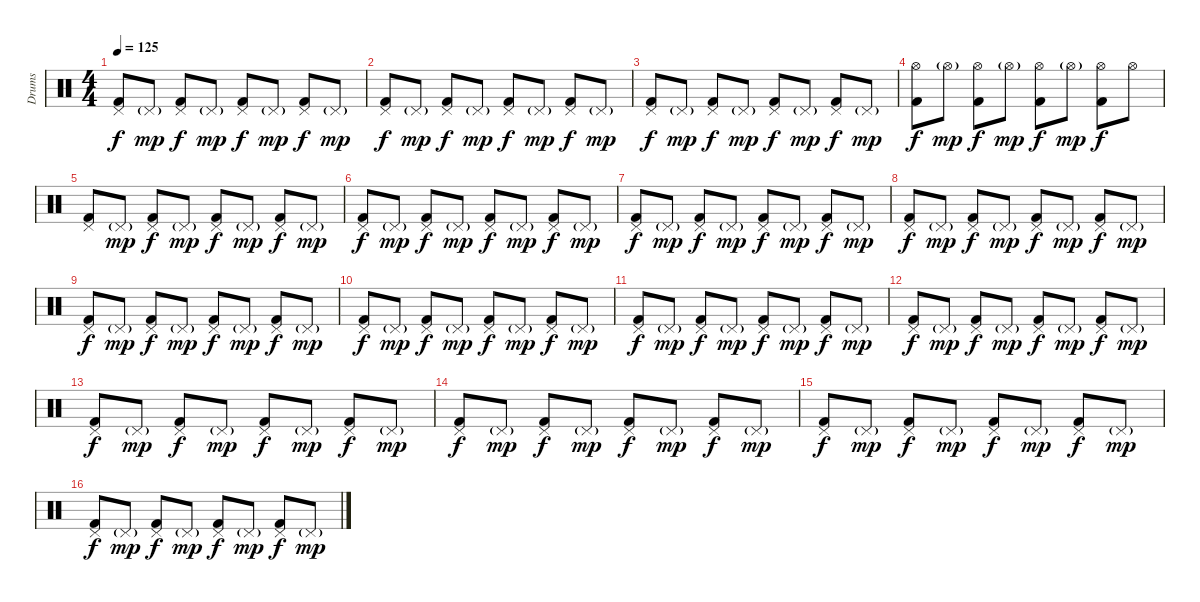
\track ("Drums" "Drums") {instrument percussion}
\staff {score}
\articulation defaults
\ts (4 4)
\tempo 125
\clef neutral
\ks c
("Pedal Hi-Hat (hit)" "Kick (hit) 2").8{dy f} "Pedal Hi-Hat (hit)"{g}.8{dy mp} ("Pedal Hi-Hat (hit)" "Kick (hit) 2").8{dy f} "Pedal Hi-Hat (hit)"{g}.8{dy mp} ("Pedal Hi-Hat (hit)" "Kick (hit) 2").8{dy f} "Pedal Hi-Hat (hit)"{g}.8{dy mp} ("Pedal Hi-Hat (hit)" "Kick (hit) 2").8{dy f} "Pedal Hi-Hat (hit)"{g}.8{dy mp} |
("Pedal Hi-Hat (hit)" "Kick (hit) 2").8{dy f} "Pedal Hi-Hat (hit)"{g}.8{dy mp} ("Pedal Hi-Hat (hit)" "Kick (hit) 2").8{dy f} "Pedal Hi-Hat (hit)"{g}.8{dy mp} ("Pedal Hi-Hat (hit)" "Kick (hit) 2").8{dy f} "Pedal Hi-Hat (hit)"{g}.8{dy mp} ("Pedal Hi-Hat (hit)" "Kick (hit) 2").8{dy f} "Pedal Hi-Hat (hit)"{g}.8{dy mp} |
("Pedal Hi-Hat (hit)" "Kick (hit) 2").8{dy f} "Pedal Hi-Hat (hit)"{g}.8{dy mp} ("Pedal Hi-Hat (hit)" "Kick (hit) 2").8{dy f} "Pedal Hi-Hat (hit)"{g}.8{dy mp} ("Pedal Hi-Hat (hit)" "Kick (hit) 2").8{dy f} "Pedal Hi-Hat (hit)"{g}.8{dy mp} ("Pedal Hi-Hat (hit)" "Kick (hit) 2").8{dy f} "Pedal Hi-Hat (hit)"{g}.8{dy mp} |
("Hi-Hat (open)" "Kick (hit) 2").8{dy f} "Hi-Hat (open)"{g}.8{dy mp} ("Hi-Hat (open)" "Kick (hit) 2").8{dy f} "Hi-Hat (open)"{g}.8{dy mp} ("Hi-Hat (open)" "Kick (hit) 2").8{dy f} "Hi-Hat (open)"{g}.8{dy mp} ("Hi-Hat (open)" "Kick (hit) 2").8{dy f} "Hi-Hat (open)".8 |
("Pedal Hi-Hat (hit)" "Kick (hit) 2").8 "Pedal Hi-Hat (hit)"{g}.8{dy mp} ("Pedal Hi-Hat (hit)" "Kick (hit) 2").8{dy f} "Pedal Hi-Hat (hit)"{g}.8{dy mp} ("Pedal Hi-Hat (hit)" "Kick (hit) 2").8{dy f} "Pedal Hi-Hat (hit)"{g}.8{dy mp} ("Pedal Hi-Hat (hit)" "Kick (hit) 2").8{dy f} "Pedal Hi-Hat (hit)"{g}.8{dy mp} |
("Pedal Hi-Hat (hit)" "Kick (hit) 2").8{dy f} "Pedal Hi-Hat (hit)"{g}.8{dy mp} ("Pedal Hi-Hat (hit)" "Kick (hit) 2").8{dy f} "Pedal Hi-Hat (hit)"{g}.8{dy mp} ("Pedal Hi-Hat (hit)" "Kick (hit) 2").8{dy f} "Pedal Hi-Hat (hit)"{g}.8{dy mp} ("Pedal Hi-Hat (hit)" "Kick (hit) 2").8{dy f} "Pedal Hi-Hat (hit)"{g}.8{dy mp} |
("Pedal Hi-Hat (hit)" "Kick (hit) 2").8{dy f} "Pedal Hi-Hat (hit)"{g}.8{dy mp} ("Pedal Hi-Hat (hit)" "Kick (hit) 2").8{dy f} "Pedal Hi-Hat (hit)"{g}.8{dy mp} ("Pedal Hi-Hat (hit)" "Kick (hit) 2").8{dy f} "Pedal Hi-Hat (hit)"{g}.8{dy mp} ("Pedal Hi-Hat (hit)" "Kick (hit) 2").8{dy f} "Pedal Hi-Hat (hit)"{g}.8{dy mp} |
("Pedal Hi-Hat (hit)" "Kick (hit) 2").8{dy f} "Pedal Hi-Hat (hit)"{g}.8{dy mp} ("Pedal Hi-Hat (hit)" "Kick (hit) 2").8{dy f} "Pedal Hi-Hat (hit)"{g}.8{dy mp} ("Pedal Hi-Hat (hit)" "Kick (hit) 2").8{dy f} "Pedal Hi-Hat (hit)"{g}.8{dy mp} ("Pedal Hi-Hat (hit)" "Kick (hit) 2").8{dy f} "Pedal Hi-Hat (hit)"{g}.8{dy mp} |
("Pedal Hi-Hat (hit)" "Kick (hit) 2").8{dy f} "Pedal Hi-Hat (hit)"{g}.8{dy mp} ("Pedal Hi-Hat (hit)" "Kick (hit) 2").8{dy f} "Pedal Hi-Hat (hit)"{g}.8{dy mp} ("Pedal Hi-Hat (hit)" "Kick (hit) 2").8{dy f} "Pedal Hi-Hat (hit)"{g}.8{dy mp} ("Pedal Hi-Hat (hit)" "Kick (hit) 2").8{dy f} "Pedal Hi-Hat (hit)"{g}.8{dy mp} |
("Pedal Hi-Hat (hit)" "Kick (hit) 2").8{dy f} "Pedal Hi-Hat (hit)"{g}.8{dy mp} ("Pedal Hi-Hat (hit)" "Kick (hit) 2").8{dy f} "Pedal Hi-Hat (hit)"{g}.8{dy mp} ("Pedal Hi-Hat (hit)" "Kick (hit) 2").8{dy f} "Pedal Hi-Hat (hit)"{g}.8{dy mp} ("Pedal Hi-Hat (hit)" "Kick (hit) 2").8{dy f} "Pedal Hi-Hat (hit)"{g}.8{dy mp} |
("Pedal Hi-Hat (hit)" "Kick (hit) 2").8{dy f} "Pedal Hi-Hat (hit)"{g}.8{dy mp} ("Pedal Hi-Hat (hit)" "Kick (hit) 2").8{dy f} "Pedal Hi-Hat (hit)"{g}.8{dy mp} ("Pedal Hi-Hat (hit)" "Kick (hit) 2").8{dy f} "Pedal Hi-Hat (hit)"{g}.8{dy mp} ("Pedal Hi-Hat (hit)" "Kick (hit) 2").8{dy f} "Pedal Hi-Hat (hit)"{g}.8{dy mp} |
("Pedal Hi-Hat (hit)" "Kick (hit) 2").8{dy f} "Pedal Hi-Hat (hit)"{g}.8{dy mp} ("Pedal Hi-Hat (hit)" "Kick (hit) 2").8{dy f} "Pedal Hi-Hat (hit)"{g}.8{dy mp} ("Pedal Hi-Hat (hit)" "Kick (hit) 2").8{dy f} "Pedal Hi-Hat (hit)"{g}.8{dy mp} ("Pedal Hi-Hat (hit)" "Kick (hit) 2").8{dy f} "Pedal Hi-Hat (hit)"{g}.8{dy mp} |
("Pedal Hi-Hat (hit)" "Kick (hit) 2").8{dy f} "Pedal Hi-Hat (hit)"{g}.8{dy mp} ("Pedal Hi-Hat (hit)" "Kick (hit) 2").8{dy f} "Pedal Hi-Hat (hit)"{g}.8{dy mp} ("Pedal Hi-Hat (hit)" "Kick (hit) 2").8{dy f} "Pedal Hi-Hat (hit)"{g}.8{dy mp} ("Pedal Hi-Hat (hit)" "Kick (hit) 2").8{dy f} "Pedal Hi-Hat (hit)"{g}.8{dy mp} |
("Pedal Hi-Hat (hit)" "Kick (hit) 2").8{dy f} "Pedal Hi-Hat (hit)"{g}.8{dy mp} ("Pedal Hi-Hat (hit)" "Kick (hit) 2").8{dy f} "Pedal Hi-Hat (hit)"{g}.8{dy mp} ("Pedal Hi-Hat (hit)" "Kick (hit) 2").8{dy f} "Pedal Hi-Hat (hit)"{g}.8{dy mp} ("Pedal Hi-Hat (hit)" "Kick (hit) 2").8{dy f} "Pedal Hi-Hat (hit)"{g}.8{dy mp} |
("Pedal Hi-Hat (hit)" "Kick (hit) 2").8{dy f} "Pedal Hi-Hat (hit)"{g}.8{dy mp} ("Pedal Hi-Hat (hit)" "Kick (hit) 2").8{dy f} "Pedal Hi-Hat (hit)"{g}.8{dy mp} ("Pedal Hi-Hat (hit)" "Kick (hit) 2").8{dy f} "Pedal Hi-Hat (hit)"{g}.8{dy mp} ("Pedal Hi-Hat (hit)" "Kick (hit) 2").8{dy f} "Pedal Hi-Hat (hit)"{g}.8{dy mp} |
("Pedal Hi-Hat (hit)" "Kick (hit) 2").8{dy f} "Pedal Hi-Hat (hit)"{g}.8{dy mp} ("Pedal Hi-Hat (hit)" "Kick (hit) 2").8{dy f} "Pedal Hi-Hat (hit)"{g}.8{dy mp} ("Pedal Hi-Hat (hit)" "Kick (hit) 2").8{dy f} "Pedal Hi-Hat (hit)"{g}.8{dy mp} ("Pedal Hi-Hat (hit)" "Kick (hit) 2").8{dy f} "Pedal Hi-Hat (hit)"{g}.8{dy mp}
